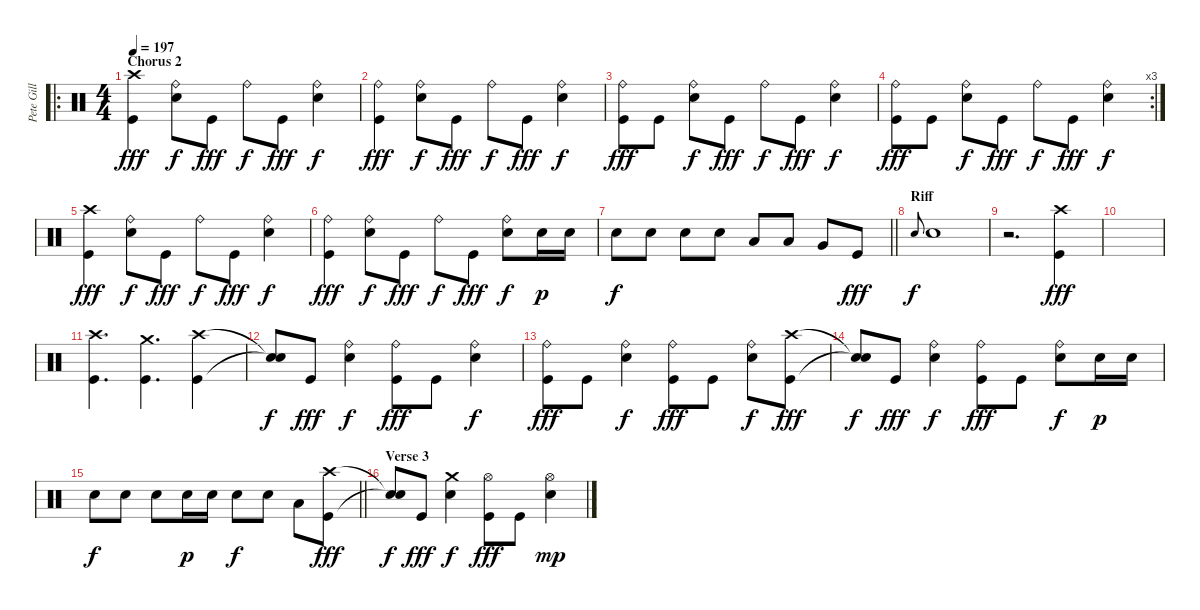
\track ("Pete Gill" "Pete Gill") {instrument percussion}
\staff {score}
\articulation defaults
\ro
\ts (4 4)
\section ("" "Chorus 2")
\tempo 197
\clef neutral
\ks c
("Crash high (hit)" "Kick (hit)").4{dy fff} ("Ride (bell)" "Electric Snare (hit)").8{dy f} "Kick (hit)".8{dy fff} "Ride (bell)".8{dy f} "Kick (hit)".8{dy fff} ("Ride (bell)" "Electric Snare (hit)").4{dy f} |
("Ride (bell)" "Kick (hit)").4{dy fff} ("Ride (bell)" "Electric Snare (hit)").8{dy f} "Kick (hit)".8{dy fff} "Ride (bell)".8{dy f} "Kick (hit)".8{dy fff} ("Ride (bell)" "Electric Snare (hit)").4{dy f} |
("Ride (bell)" "Kick (hit)").8{dy fff} "Kick (hit)".8 ("Ride (bell)" "Electric Snare (hit)").8{dy f} "Kick (hit)".8{dy fff} "Ride (bell)".8{dy f} "Kick (hit)".8{dy fff} ("Ride (bell)" "Electric Snare (hit)").4{dy f} |
\rc 3
("Ride (bell)" "Kick (hit)").8{dy fff} "Kick (hit)".8 ("Ride (bell)" "Electric Snare (hit)").8{dy f} "Kick (hit)".8{dy fff} "Ride (bell)".8{dy f} "Kick (hit)".8{dy fff} ("Ride (bell)" "Electric Snare (hit)").4{dy f} |
("Crash high (hit)" "Kick (hit)").4{dy fff} ("Ride (bell)" "Electric Snare (hit)").8{dy f} "Kick (hit)".8{dy fff} "Ride (bell)".8{dy f} "Kick (hit)".8{dy fff} ("Ride (bell)" "Electric Snare (hit)").4{dy f} |
("Ride (bell)" "Kick (hit)").4{dy fff} ("Ride (bell)" "Electric Snare (hit)").8{dy f} "Kick (hit)".8{dy fff} "Ride (bell)".8{dy f} "Kick (hit)".8{dy fff} ("Ride (bell)" "Electric Snare (hit)").8{dy f} "Electric Snare (hit)".16{dy p} "Electric Snare (hit)".16 |
\barLineRight lightlight "Electric Snare (hit)".8{dy f} "Electric Snare (hit)".8 "Electric Snare (hit)".8 "Electric Snare (hit)".8 "Low Tom (hit)".8 "Low Tom (hit)".8 "Very Low Tom (hit)".8 "Kick (hit)".8{dy fff}
|
\section ("" "Riff")
"Electric Snare (hit)".8{gr onbeat dy f} "Electric Snare (hit)".1 |
r.2{d} ("Crash high (hit)" "Kick (hit)").4{dy fff} |
|
("Crash high (hit)" "Kick (hit)").4{d} ("Crash medium (hit)" "Kick (hit)").4{d} ("Crash high (hit)" "Kick (hit)").4 |
("Snare (hit)"{t} "Snare (hit)"{t}).8{dy f} "Kick (hit)".8{dy fff} ("Ride (bell)" "Electric Snare (hit)").4{dy f} ("Ride (bell)" "Kick (hit)").8{dy fff} "Kick (hit)".8 ("Ride (bell)" "Electric Snare (hit)").4{dy f} |
("Ride (bell)" "Kick (hit)").8{dy fff} "Kick (hit)".8 ("Ride (bell)" "Electric Snare (hit)").4{dy f} ("Ride (bell)" "Kick (hit)").8{dy fff} "Kick (hit)".8 ("Ride (bell)" "Electric Snare (hit)").8{dy f} ("Crash high (hit)" "Kick (hit)").8{dy fff} |
("Snare (hit)"{t} "Snare (hit)"{t}).8{dy f} "Kick (hit)".8{dy fff} ("Ride (bell)" "Electric Snare (hit)").4{dy f} ("Ride (bell)" "Kick (hit)").8{dy fff} "Kick (hit)".8 ("Ride (bell)" "Electric Snare (hit)").8{dy f} "Electric Snare (hit)".16{dy p} "Electric Snare (hit)".16 |
\barLineRight lightlight "Electric Snare (hit)".8{dy f} "Electric Snare (hit)".8 "Electric Snare (hit)".8 "Electric Snare (hit)".16{dy p} "Electric Snare (hit)".16 "Electric Snare (hit)".8{dy f} "Electric Snare (hit)".8 "Low Tom (hit)".8
("Crash high (hit)" "Kick (hit)").8{dy fff} |
\section ("" "Verse 3")
("Snare (hit)"{t} "Snare (hit)"{t}).8{dy f} "Kick (hit)".8{dy fff} ("Crash medium (hit)" "Electric Snare (hit)").4{dy f} ("Hi-Hat (open)" "Kick (hit)").8{dy fff} "Kick (hit)".8 ("Hi-Hat (open)" "Electric Snare (hit)").4{dy mp}
